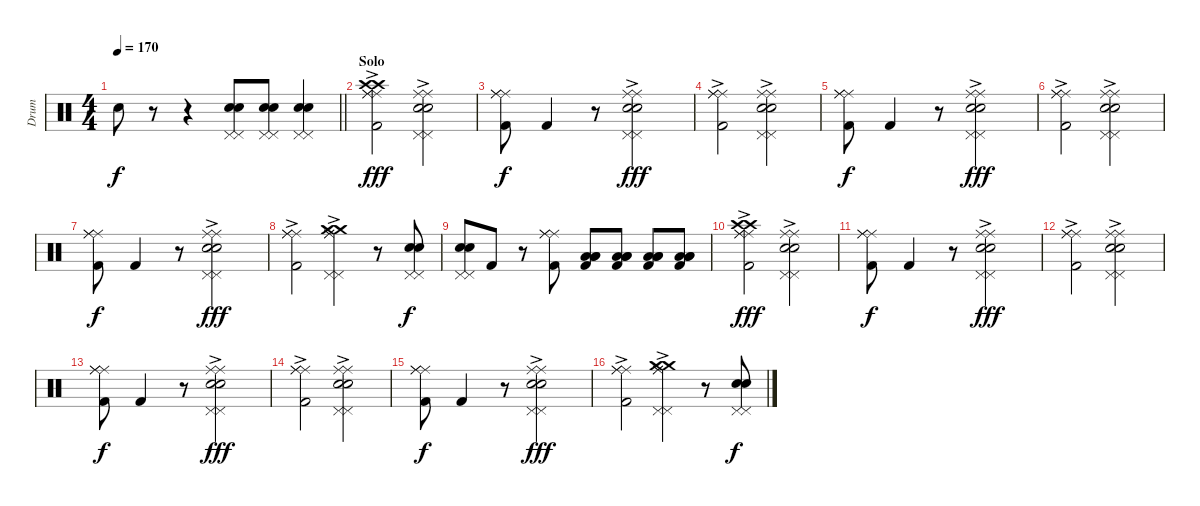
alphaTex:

\track ("Drum" "Drum") {instrument percussion}
\staff {score}
\articulation defaults
\ts (4 4)
\tempo 170
\clef neutral
\barLineRight lightlight
\ks c "Snare (hit)"{t}.8{dy f}
r.8 r.4 ("Electric Snare (hit)" "Electric Snare (hit)" "Pedal Hi-Hat (hit)" "Pedal Hi-Hat (hit)").8 ("Electric Snare (hit)" "Electric Snare (hit)" "Pedal Hi-Hat (hit)" "Pedal Hi-Hat (hit)").8 ("Electric Snare (hit)" "Electric Snare (hit)" "Pedal Hi-Hat (hit)" "Pedal Hi-Hat (hit)").4 |
\section ("" "Solo")
("Crash high (hit)" "Crash high (hit)" "Kick (hit) 2" "Ride (middle)" "Ride (middle)" "Ride (middle)"{ac}).2{dy fff} ("Electric Snare (hit)" "Electric Snare (hit)" "Pedal Hi-Hat (hit)" "Pedal Hi-Hat (hit)" "Ride (middle)" "Ride (middle)"{ac}).2 |
("Kick (hit) 2" "Ride (middle)" "Ride (middle)" "Ride (middle)").8{dy f} "Kick (hit) 2".4 r.8 ("Electric Snare (hit)" "Electric Snare (hit)" "Pedal Hi-Hat (hit)" "Pedal Hi-Hat (hit)" "Ride (middle)" "Ride (middle)"{ac}).2{dy fff} |
("Kick (hit) 2" "Ride (middle)" "Ride (middle)" "Ride (middle)"{ac}).2 ("Electric Snare (hit)" "Electric Snare (hit)" "Pedal Hi-Hat (hit)" "Pedal Hi-Hat (hit)" "Ride (middle)" "Ride (middle)"{ac}).2 |
("Kick (hit) 2" "Ride (middle)" "Ride (middle)" "Ride (middle)").8{dy f} "Kick (hit) 2".4 r.8 ("Electric Snare (hit)" "Electric Snare (hit)" "Pedal Hi-Hat (hit)" "Pedal Hi-Hat (hit)" "Ride (middle)" "Ride (middle)"{ac}).2{dy fff} |
("Kick (hit) 2" "Ride (middle)" "Ride (middle)" "Ride (middle)"{ac}).2 ("Electric Snare (hit)" "Electric Snare (hit)" "Pedal Hi-Hat (hit)" "Pedal Hi-Hat (hit)" "Ride (middle)" "Ride (middle)"{ac}).2 |
("Kick (hit) 2" "Ride (middle)" "Ride (middle)" "Ride (middle)").8{dy f} "Kick (hit) 2".4 r.8 ("Electric Snare (hit)" "Electric Snare (hit)" "Pedal Hi-Hat (hit)" "Pedal Hi-Hat (hit)" "Ride (middle)" "Ride (middle)"{ac}).2{dy fff} |
("Kick (hit) 2" "Ride (middle)" "Ride (middle)" "Ride (middle)"{ac}).2 ("Crash medium (hit)" "Crash medium (hit)" "Pedal Hi-Hat (hit)" "Pedal Hi-Hat (hit)" "Ride (middle)" "Ride (middle)"{ac}).4 r.8 ("Electric Snare (hit)" "Electric Snare (hit)" "Pedal Hi-Hat (hit)" "Pedal Hi-Hat (hit)").8{dy f} |
("Electric Snare (hit)" "Electric Snare (hit)" "Pedal Hi-Hat (hit)" "Pedal Hi-Hat (hit)").8 "Kick (hit) 2".8 r.8 ("Kick (hit) 2" "Ride (middle)" "Ride (middle)" "Ride (middle)").8 ("Kick (hit) 2" "Low Tom (hit)" "Low Floor Tom (hit)" "Low Floor Tom (hit)").8 ("Kick (hit) 2" "Low Tom (hit)" "Low Floor Tom (hit)" "Low Floor Tom (hit)").8 ("Kick (hit) 2" "Low Tom (hit)" "Low Floor Tom (hit)" "Low Floor Tom (hit)").8 ("Kick (hit) 2" "Low Tom (hit)" "Low Floor Tom (hit)" "Low Floor Tom (hit)").8 |
("Crash high (hit)" "Crash high (hit)" "Kick (hit) 2" "Ride (middle)" "Ride (middle)" "Ride (middle)"{ac}).2{dy fff} ("Electric Snare (hit)" "Electric Snare (hit)" "Pedal Hi-Hat (hit)" "Pedal Hi-Hat (hit)" "Ride (middle)" "Ride (middle)"{ac}).2 |
("Kick (hit) 2" "Ride (middle)" "Ride (middle)" "Ride (middle)").8{dy f} "Kick (hit) 2".4 r.8 ("Electric Snare (hit)" "Electric Snare (hit)" "Pedal Hi-Hat (hit)" "Pedal Hi-Hat (hit)" "Ride (middle)" "Ride (middle)"{ac}).2{dy fff} |
("Kick (hit) 2" "Ride (middle)" "Ride (middle)" "Ride (middle)"{ac}).2 ("Electric Snare (hit)" "Electric Snare (hit)" "Pedal Hi-Hat (hit)" "Pedal Hi-Hat (hit)" "Ride (middle)" "Ride (middle)"{ac}).2 |
("Kick (hit) 2" "Ride (middle)" "Ride (middle)" "Ride (middle)").8{dy f} "Kick (hit) 2".4 r.8 ("Electric Snare (hit)" "Electric Snare (hit)" "Pedal Hi-Hat (hit)" "Pedal Hi-Hat (hit)" "Ride (middle)" "Ride (middle)"{ac}).2{dy fff} |
("Kick (hit) 2" "Ride (middle)" "Ride (middle)" "Ride (middle)"{ac}).2 ("Electric Snare (hit)" "Electric Snare (hit)" "Pedal Hi-Hat (hit)" "Pedal Hi-Hat (hit)" "Ride (middle)" "Ride (middle)"{ac}).2 |
("Kick (hit) 2" "Ride (middle)" "Ride (middle)" "Ride (middle)").8{dy f} "Kick (hit) 2".4 r.8 ("Electric Snare (hit)" "Electric Snare (hit)" "Pedal Hi-Hat (hit)" "Pedal Hi-Hat (hit)" "Ride (middle)" "Ride (middle)"{ac}).2{dy fff} |
("Kick (hit) 2" "Ride (middle)" "Ride (middle)" "Ride (middle)"{ac}).2 ("Crash medium (hit)" "Crash medium (hit)" "Pedal Hi-Hat (hit)" "Pedal Hi-Hat (hit)" "Ride (middle)" "Ride (middle)"{ac}).4 r.8 ("Electric Snare (hit)" "Electric Snare (hit)" "Pedal Hi-Hat (hit)" "Pedal Hi-Hat (hit)").8{dy f}
